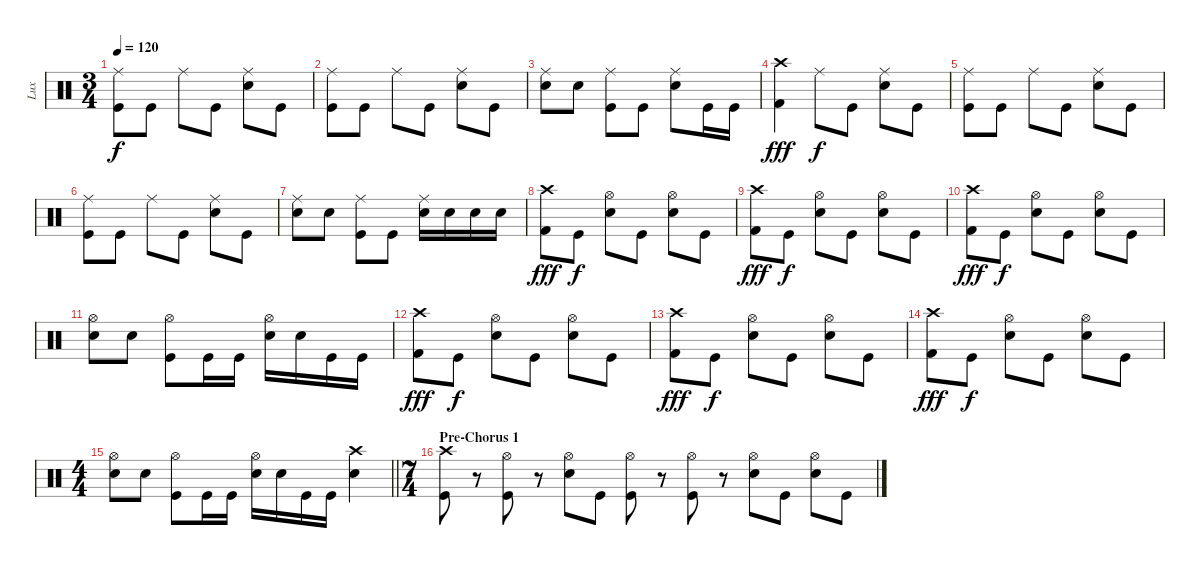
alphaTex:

\track ("Lux" "Lux") {instrument percussion}
\staff {score}
\articulation defaults
\ts (3 4)
\tempo 120
\clef neutral
\ks c
("Ride (middle)" "Kick (hit)").8{dy f} "Kick (hit)".8 "Ride (middle)".8 "Kick (hit)".8 ("Ride (middle)" "Snare (hit) 2").8 "Kick (hit)".8 |
("Ride (middle)" "Kick (hit)").8 "Kick (hit)".8 "Ride (middle)".8 "Kick (hit)".8 ("Ride (middle)" "Snare (hit) 2").8 "Kick (hit)".8 |
("Ride (middle)" "Snare (hit) 2").8 "Snare (hit) 2".8 ("Ride (middle)" "Kick (hit)").8 "Kick (hit)".8 ("Ride (middle)" "Snare (hit) 2").8 "Kick (hit)".16 "Kick (hit)".16 |
("Crash high (hit)" "Kick (hit) 2").4{dy fff} "Ride (middle)".8{dy f} "Kick (hit)".8 ("Ride (middle)" "Snare (hit) 2").8 "Kick (hit)".8 |
("Ride (middle)" "Kick (hit)").8 "Kick (hit)".8 "Ride (middle)".8 "Kick (hit)".8 ("Ride (middle)" "Snare (hit) 2").8 "Kick (hit)".8 |
("Ride (middle)" "Kick (hit)").8 "Kick (hit)".8 "Ride (middle)".8 "Kick (hit)".8 ("Ride (middle)" "Snare (hit) 2").8 "Kick (hit)".8 |
("Ride (middle)" "Snare (hit) 2").8 "Snare (hit) 2".8 ("Ride (middle)" "Kick (hit)").8 "Kick (hit)".8 ("Ride (middle)" "Snare (hit) 2").16 "Snare (hit) 2".16 "Snare (hit) 2".16 "Snare (hit) 2".16 |
("Crash high (hit)" "Kick (hit) 2").8{dy fff} "Kick (hit)".8{dy f} ("Hi-Hat (open)" "Snare (hit) 2").8 "Kick (hit)".8 ("Hi-Hat (open)" "Snare (hit) 2").8 "Kick (hit)".8 |
("Crash high (hit)" "Kick (hit) 2").8{dy fff} "Kick (hit)".8{dy f} ("Hi-Hat (open)" "Snare (hit) 2").8 "Kick (hit)".8 ("Hi-Hat (open)" "Snare (hit) 2").8 "Kick (hit)".8 |
("Crash high (hit)" "Kick (hit) 2").8{dy fff} "Kick (hit)".8{dy f} ("Hi-Hat (open)" "Snare (hit) 2").8 "Kick (hit)".8 ("Hi-Hat (open)" "Snare (hit) 2").8 "Kick (hit)".8 |
("Hi-Hat (open)" "Snare (hit) 2").8 "Snare (hit) 2".8 ("Hi-Hat (open)" "Kick (hit)").8 "Kick (hit)".16 "Kick (hit)".16 ("Hi-Hat (open)" "Snare (hit) 2").16 "Snare (hit) 2".16 "Kick (hit)".16 "Kick (hit)".16 |
("Crash high (hit)" "Kick (hit) 2").8{dy fff} "Kick (hit)".8{dy f} ("Hi-Hat (open)" "Snare (hit) 2").8 "Kick (hit)".8 ("Hi-Hat (open)" "Snare (hit) 2").8 "Kick (hit)".8 |
("Crash high (hit)" "Kick (hit) 2").8{dy fff} "Kick (hit)".8{dy f} ("Hi-Hat (open)" "Snare (hit) 2").8 "Kick (hit)".8 ("Hi-Hat (open)" "Snare (hit) 2").8 "Kick (hit)".8 |
("Crash high (hit)" "Kick (hit) 2").8{dy fff} "Kick (hit)".8{dy f} ("Hi-Hat (open)" "Snare (hit) 2").8 "Kick (hit)".8 ("Hi-Hat (open)" "Snare (hit) 2").8 "Kick (hit)".8 |
\ts (4 4)
\barLineRight lightlight
("Hi-Hat (open)" "Snare (hit) 2").8 "Snare (hit) 2".8 ("Hi-Hat (open)" "Kick (hit)").8 "Kick (hit)".16 "Kick (hit)".16 ("Hi-Hat (open)" "Snare (hit) 2").16 "Snare (hit) 2".16 "Kick (hit)".16 "Kick (hit)".16 ("Crash high (hit)" "Snare (hit) 2").4 |
\ts (7 4)
\section ("" "Pre-Chorus 1")
("Crash high (hit)" "Kick (hit)").8 r.8 ("Hi-Hat (open)" "Kick (hit)").8 r.8 ("Hi-Hat (open)" "Snare (hit) 2").8 "Kick (hit)".8 ("Hi-Hat (open)" "Kick (hit)").8 r.8 ("Hi-Hat (open)" "Kick (hit)").8 r.8 ("Hi-Hat (open)" "Snare (hit) 2").8 "Kick (hit)".8 ("Hi-Hat (open)" "Snare (hit) 2").8 "Kick (hit)".8
